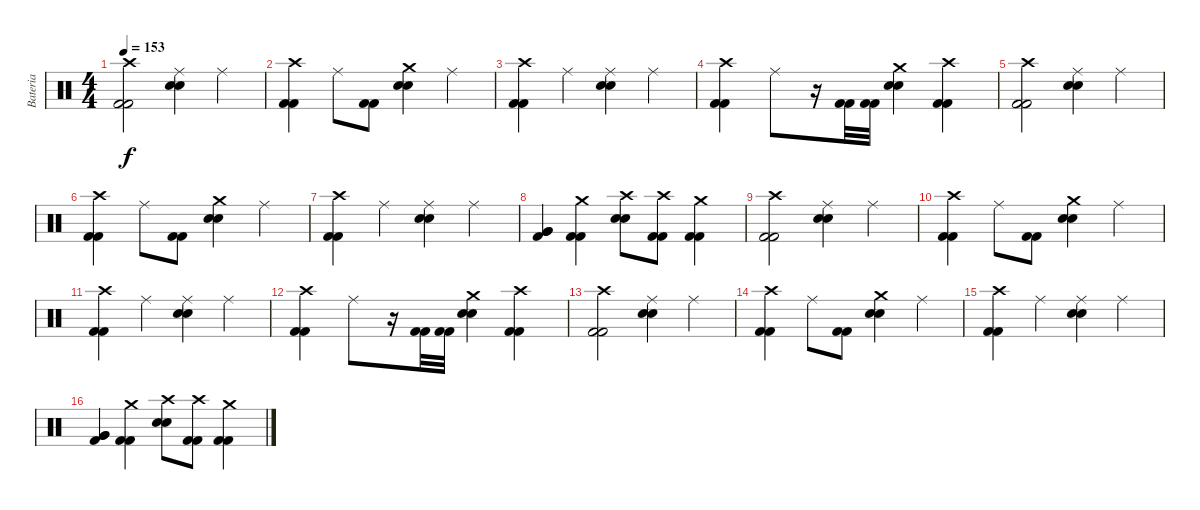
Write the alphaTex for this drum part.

\track ("Bateria" "Bateria") {instrument percussion}
\staff {score}
\articulation defaults
\ts (4 4)
\tempo 153
\clef neutral
\ks c
("Crash high (hit)" "Kick (hit) 2" "Kick (hit) 2").2{dy f} ("Ride (middle)" "Snare (hit) 2" "Snare (hit) 2").4 "Ride (middle)".4 |
("Crash high (hit)" "Kick (hit) 2" "Kick (hit) 2").4 "Ride (middle)".8 ("Kick (hit) 2" "Kick (hit) 2").8 ("Crash medium (hit)" "Snare (hit) 2" "Snare (hit) 2").4 "Ride (middle)".4 |
("Crash high (hit)" "Kick (hit) 2" "Kick (hit) 2").4 "Ride (middle)".4 ("Ride (middle)" "Snare (hit) 2" "Snare (hit) 2").4 "Ride (middle)".4 |
("Crash high (hit)" "Kick (hit) 2" "Kick (hit) 2").4 "Ride (middle)".8 r.16 ("Kick (hit) 2" "Kick (hit) 2").32 ("Kick (hit) 2" "Kick (hit) 2").32 ("Crash medium (hit)" "Snare (hit) 2" "Snare (hit) 2").4 ("Crash high (hit)" "Kick (hit) 2" "Kick (hit) 2").4 |
("Crash high (hit)" "Kick (hit) 2" "Kick (hit) 2").2 ("Ride (middle)" "Snare (hit) 2" "Snare (hit) 2").4 "Ride (middle)".4 |
("Crash high (hit)" "Kick (hit) 2" "Kick (hit) 2").4 "Ride (middle)".8 ("Kick (hit) 2" "Kick (hit) 2").8 ("Crash medium (hit)" "Snare (hit) 2" "Snare (hit) 2").4 "Ride (middle)".4 |
("Crash high (hit)" "Kick (hit) 2" "Kick (hit) 2").4 "Ride (middle)".4 ("Ride (middle)" "Snare (hit) 2" "Snare (hit) 2").4 "Ride (middle)".4 |
("Very Low Tom (hit)" "Very Low Tom (hit)" "Kick (hit) 2").4 ("Crash medium (hit)" "Kick (hit) 2" "Kick (hit) 2").4 ("Crash high (hit)" "Snare (hit) 2" "Snare (hit) 2").8 ("Crash high (hit)" "Kick (hit) 2" "Kick (hit) 2").8 ("Crash medium (hit)" "Kick (hit) 2" "Kick (hit) 2").4 |
("Crash high (hit)" "Kick (hit) 2" "Kick (hit) 2").2 ("Ride (middle)" "Snare (hit) 2" "Snare (hit) 2").4 "Ride (middle)".4 |
("Crash high (hit)" "Kick (hit) 2" "Kick (hit) 2").4 "Ride (middle)".8 ("Kick (hit) 2" "Kick (hit) 2").8 ("Crash medium (hit)" "Snare (hit) 2" "Snare (hit) 2").4 "Ride (middle)".4 |
("Crash high (hit)" "Kick (hit) 2" "Kick (hit) 2").4 "Ride (middle)".4 ("Ride (middle)" "Snare (hit) 2" "Snare (hit) 2").4 "Ride (middle)".4 |
("Crash high (hit)" "Kick (hit) 2" "Kick (hit) 2").4 "Ride (middle)".8 r.16 ("Kick (hit) 2" "Kick (hit) 2").32 ("Kick (hit) 2" "Kick (hit) 2").32 ("Crash medium (hit)" "Snare (hit) 2" "Snare (hit) 2").4 ("Crash high (hit)" "Kick (hit) 2" "Kick (hit) 2").4 |
("Crash high (hit)" "Kick (hit) 2" "Kick (hit) 2").2 ("Ride (middle)" "Snare (hit) 2" "Snare (hit) 2").4 "Ride (middle)".4 |
("Crash high (hit)" "Kick (hit) 2" "Kick (hit) 2").4 "Ride (middle)".8 ("Kick (hit) 2" "Kick (hit) 2").8 ("Crash medium (hit)" "Snare (hit) 2" "Snare (hit) 2").4 "Ride (middle)".4 |
("Crash high (hit)" "Kick (hit) 2" "Kick (hit) 2").4 "Ride (middle)".4 ("Ride (middle)" "Snare (hit) 2" "Snare (hit) 2").4 "Ride (middle)".4 |
("Very Low Tom (hit)" "Very Low Tom (hit)" "Kick (hit) 2").4 ("Crash medium (hit)" "Kick (hit) 2" "Kick (hit) 2").4 ("Crash high (hit)" "Snare (hit) 2" "Snare (hit) 2").8 ("Crash high (hit)" "Kick (hit) 2" "Kick (hit) 2").8 ("Crash medium (hit)" "Kick (hit) 2" "Kick (hit) 2").4
